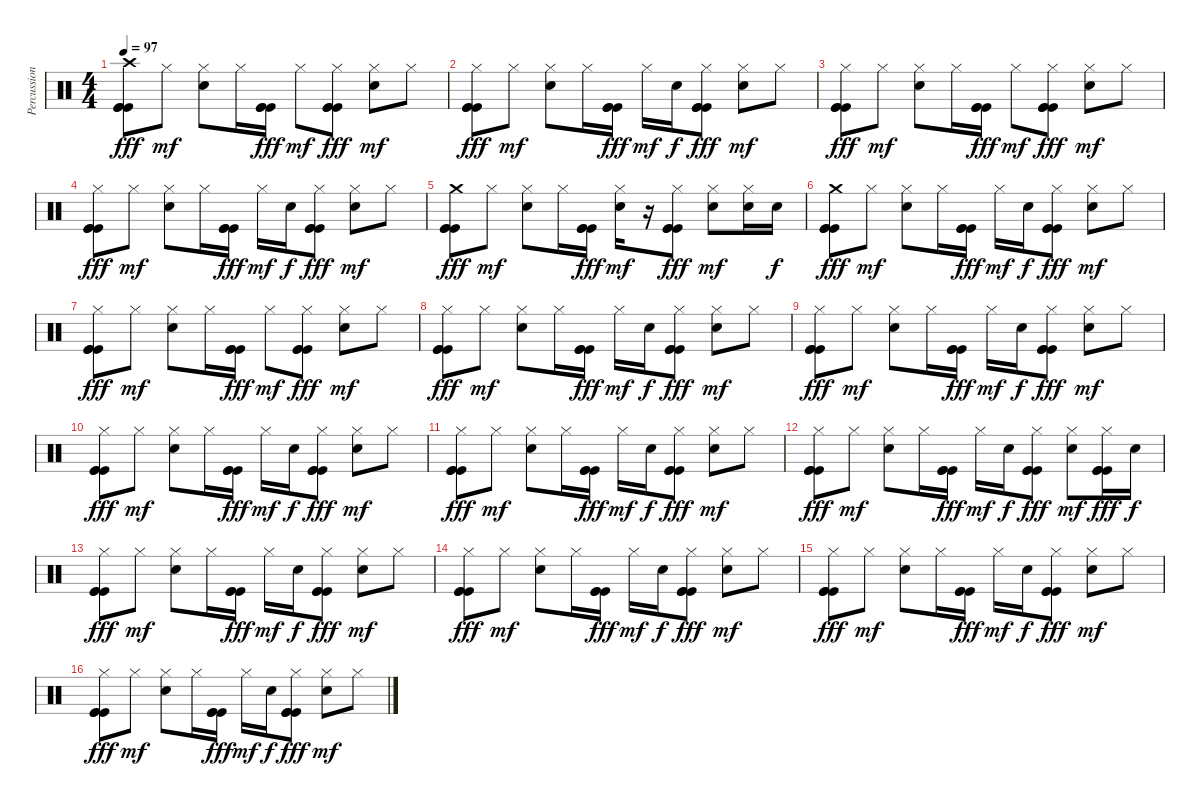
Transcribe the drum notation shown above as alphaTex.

\track ("Percussions" "Percussion") {instrument percussion}
\staff {score}
\articulation defaults
\ts (4 4)
\tempo 97
\clef neutral
\ks c
("Crash high (hit)" "Kick (hit)" "Kick (hit)" "Kick (hit)").8{dy fff} "Hi-Hat (closed)".8{dy mf} ("Hi-Hat (closed)" "Electric Snare (hit)").8 "Hi-Hat (closed)".16 ("Kick (hit)" "Kick (hit)" "Kick (hit)").16{dy fff} "Hi-Hat (closed)".8{dy mf} ("Hi-Hat (closed)" "Kick (hit)" "Kick (hit)" "Kick (hit)").8{dy fff} ("Hi-Hat (closed)" "Electric Snare (hit)").8{dy mf} "Hi-Hat (closed)".8 |
("Hi-Hat (closed)" "Kick (hit)" "Kick (hit)" "Kick (hit)").8{dy fff} "Hi-Hat (closed)".8{dy mf} ("Hi-Hat (closed)" "Electric Snare (hit)").8 "Hi-Hat (closed)".16 ("Kick (hit)" "Kick (hit)" "Kick (hit)").16{dy fff} "Hi-Hat (closed)".16{dy mf} "Electric Snare (hit)".16{dy f} ("Hi-Hat (closed)" "Kick (hit)" "Kick (hit)" "Kick (hit)").8{dy fff} ("Hi-Hat (closed)" "Electric Snare (hit)").8{dy mf} "Hi-Hat (closed)".8 |
("Hi-Hat (closed)" "Kick (hit)" "Kick (hit)" "Kick (hit)").8{dy fff} "Hi-Hat (closed)".8{dy mf} ("Hi-Hat (closed)" "Electric Snare (hit)").8 "Hi-Hat (closed)".16 ("Kick (hit)" "Kick (hit)" "Kick (hit)").16{dy fff} "Hi-Hat (closed)".8{dy mf} ("Hi-Hat (closed)" "Kick (hit)" "Kick (hit)" "Kick (hit)").8{dy fff} ("Hi-Hat (closed)" "Electric Snare (hit)").8{dy mf} "Hi-Hat (closed)".8 |
("Hi-Hat (closed)" "Kick (hit)" "Kick (hit)" "Kick (hit)").8{dy fff} "Hi-Hat (closed)".8{dy mf} ("Hi-Hat (closed)" "Electric Snare (hit)").8 "Hi-Hat (closed)".16 ("Kick (hit)" "Kick (hit)" "Kick (hit)").16{dy fff} "Hi-Hat (closed)".16{dy mf} "Electric Snare (hit)".16{dy f} ("Hi-Hat (closed)" "Kick (hit)" "Kick (hit)" "Kick (hit)").8{dy fff} ("Hi-Hat (closed)" "Electric Snare (hit)").8{dy mf} "Hi-Hat (closed)".8 |
("Crash medium (hit)" "Kick (hit)" "Kick (hit)" "Kick (hit)").8{dy fff} "Hi-Hat (closed)".8{dy mf} ("Hi-Hat (closed)" "Electric Snare (hit)").8 "Hi-Hat (closed)".16 ("Kick (hit)" "Kick (hit)" "Kick (hit)").16{dy fff} ("Hi-Hat (closed)" "Electric Snare (hit)").16{dy mf} r.16 ("Hi-Hat (closed)" "Kick (hit)" "Kick (hit)" "Kick (hit)").8{dy fff} ("Hi-Hat (closed)" "Electric Snare (hit)").8{dy mf} ("Hi-Hat (closed)" "Electric Snare (hit)").16 "Electric Snare (hit)".16{dy f} |
("Crash medium (hit)" "Kick (hit)" "Kick (hit)" "Kick (hit)").8{dy fff} "Hi-Hat (closed)".8{dy mf} ("Hi-Hat (closed)" "Electric Snare (hit)").8 "Hi-Hat (closed)".16 ("Kick (hit)" "Kick (hit)" "Kick (hit)").16{dy fff} "Hi-Hat (closed)".16{dy mf} "Electric Snare (hit)".16{dy f} ("Hi-Hat (closed)" "Kick (hit)" "Kick (hit)" "Kick (hit)").8{dy fff} ("Hi-Hat (closed)" "Electric Snare (hit)").8{dy mf} "Hi-Hat (closed)".8 |
("Hi-Hat (closed)" "Kick (hit)" "Kick (hit)" "Kick (hit)").8{dy fff} "Hi-Hat (closed)".8{dy mf} ("Hi-Hat (closed)" "Electric Snare (hit)").8 "Hi-Hat (closed)".16 ("Kick (hit)" "Kick (hit)" "Kick (hit)").16{dy fff} "Hi-Hat (closed)".8{dy mf} ("Hi-Hat (closed)" "Kick (hit)" "Kick (hit)" "Kick (hit)").8{dy fff} ("Hi-Hat (closed)" "Electric Snare (hit)").8{dy mf} "Hi-Hat (closed)".8 |
("Hi-Hat (closed)" "Kick (hit)" "Kick (hit)" "Kick (hit)").8{dy fff} "Hi-Hat (closed)".8{dy mf} ("Hi-Hat (closed)" "Electric Snare (hit)").8 "Hi-Hat (closed)".16 ("Kick (hit)" "Kick (hit)" "Kick (hit)").16{dy fff} "Hi-Hat (closed)".16{dy mf} "Electric Snare (hit)".16{dy f} ("Hi-Hat (closed)" "Kick (hit)" "Kick (hit)" "Kick (hit)").8{dy fff} ("Hi-Hat (closed)" "Electric Snare (hit)").8{dy mf} "Hi-Hat (closed)".8 |
("Hi-Hat (closed)" "Kick (hit)" "Kick (hit)" "Kick (hit)").8{dy fff} "Hi-Hat (closed)".8{dy mf} ("Hi-Hat (closed)" "Electric Snare (hit)").8 "Hi-Hat (closed)".16 ("Kick (hit)" "Kick (hit)" "Kick (hit)").16{dy fff} "Hi-Hat (closed)".16{dy mf} "Electric Snare (hit)".16{dy f} ("Hi-Hat (closed)" "Kick (hit)" "Kick (hit)" "Kick (hit)").8{dy fff} ("Hi-Hat (closed)" "Electric Snare (hit)").8{dy mf} "Hi-Hat (closed)".8 |
("Hi-Hat (closed)" "Kick (hit)" "Kick (hit)" "Kick (hit)").8{dy fff} "Hi-Hat (closed)".8{dy mf} ("Hi-Hat (closed)" "Electric Snare (hit)").8 "Hi-Hat (closed)".16 ("Kick (hit)" "Kick (hit)" "Kick (hit)").16{dy fff} "Hi-Hat (closed)".16{dy mf} "Electric Snare (hit)".16{dy f} ("Hi-Hat (closed)" "Kick (hit)" "Kick (hit)" "Kick (hit)").8{dy fff} ("Hi-Hat (closed)" "Electric Snare (hit)").8{dy mf} "Hi-Hat (closed)".8 |
("Hi-Hat (closed)" "Kick (hit)" "Kick (hit)" "Kick (hit)").8{dy fff} "Hi-Hat (closed)".8{dy mf} ("Hi-Hat (closed)" "Electric Snare (hit)").8 "Hi-Hat (closed)".16 ("Kick (hit)" "Kick (hit)" "Kick (hit)").16{dy fff} "Hi-Hat (closed)".16{dy mf} "Electric Snare (hit)".16{dy f} ("Hi-Hat (closed)" "Kick (hit)" "Kick (hit)" "Kick (hit)").8{dy fff} ("Hi-Hat (closed)" "Electric Snare (hit)").8{dy mf} "Hi-Hat (closed)".8 |
("Hi-Hat (closed)" "Kick (hit)" "Kick (hit)" "Kick (hit)").8{dy fff} "Hi-Hat (closed)".8{dy mf} ("Hi-Hat (closed)" "Electric Snare (hit)").8 "Hi-Hat (closed)".16 ("Kick (hit)" "Kick (hit)" "Kick (hit)").16{dy fff} "Hi-Hat (closed)".16{dy mf} "Electric Snare (hit)".16{dy f} ("Hi-Hat (closed)" "Kick (hit)" "Kick (hit)" "Kick (hit)").8{dy fff} ("Hi-Hat (closed)" "Electric Snare (hit)").8{dy mf} ("Hi-Hat (closed)" "Kick (hit)" "Kick (hit)" "Kick (hit)").16{dy fff} "Electric Snare (hit)".16{dy f} |
("Hi-Hat (closed)" "Kick (hit)" "Kick (hit)" "Kick (hit)").8{dy fff} "Hi-Hat (closed)".8{dy mf} ("Hi-Hat (closed)" "Electric Snare (hit)").8 "Hi-Hat (closed)".16 ("Kick (hit)" "Kick (hit)" "Kick (hit)").16{dy fff} "Hi-Hat (closed)".16{dy mf} "Electric Snare (hit)".16{dy f} ("Hi-Hat (closed)" "Kick (hit)" "Kick (hit)" "Kick (hit)").8{dy fff} ("Hi-Hat (closed)" "Electric Snare (hit)").8{dy mf} "Hi-Hat (closed)".8 |
("Hi-Hat (closed)" "Kick (hit)" "Kick (hit)" "Kick (hit)").8{dy fff} "Hi-Hat (closed)".8{dy mf} ("Hi-Hat (closed)" "Electric Snare (hit)").8 "Hi-Hat (closed)".16 ("Kick (hit)" "Kick (hit)" "Kick (hit)").16{dy fff} "Hi-Hat (closed)".16{dy mf} "Electric Snare (hit)".16{dy f} ("Hi-Hat (closed)" "Kick (hit)" "Kick (hit)" "Kick (hit)").8{dy fff} ("Hi-Hat (closed)" "Electric Snare (hit)").8{dy mf} "Hi-Hat (closed)".8 |
("Hi-Hat (closed)" "Kick (hit)" "Kick (hit)" "Kick (hit)").8{dy fff} "Hi-Hat (closed)".8{dy mf} ("Hi-Hat (closed)" "Electric Snare (hit)").8 "Hi-Hat (closed)".16 ("Kick (hit)" "Kick (hit)" "Kick (hit)").16{dy fff} "Hi-Hat (closed)".16{dy mf} "Electric Snare (hit)".16{dy f} ("Hi-Hat (closed)" "Kick (hit)" "Kick (hit)" "Kick (hit)").8{dy fff} ("Hi-Hat (closed)" "Electric Snare (hit)").8{dy mf} "Hi-Hat (closed)".8 |
("Hi-Hat (closed)" "Kick (hit)" "Kick (hit)" "Kick (hit)").8{dy fff} "Hi-Hat (closed)".8{dy mf} ("Hi-Hat (closed)" "Electric Snare (hit)").8 "Hi-Hat (closed)".16 ("Kick (hit)" "Kick (hit)" "Kick (hit)").16{dy fff} "Hi-Hat (closed)".16{dy mf} "Electric Snare (hit)".16{dy f} ("Hi-Hat (closed)" "Kick (hit)" "Kick (hit)" "Kick (hit)").8{dy fff} ("Hi-Hat (closed)" "Electric Snare (hit)").8{dy mf} "Hi-Hat (closed)".8
